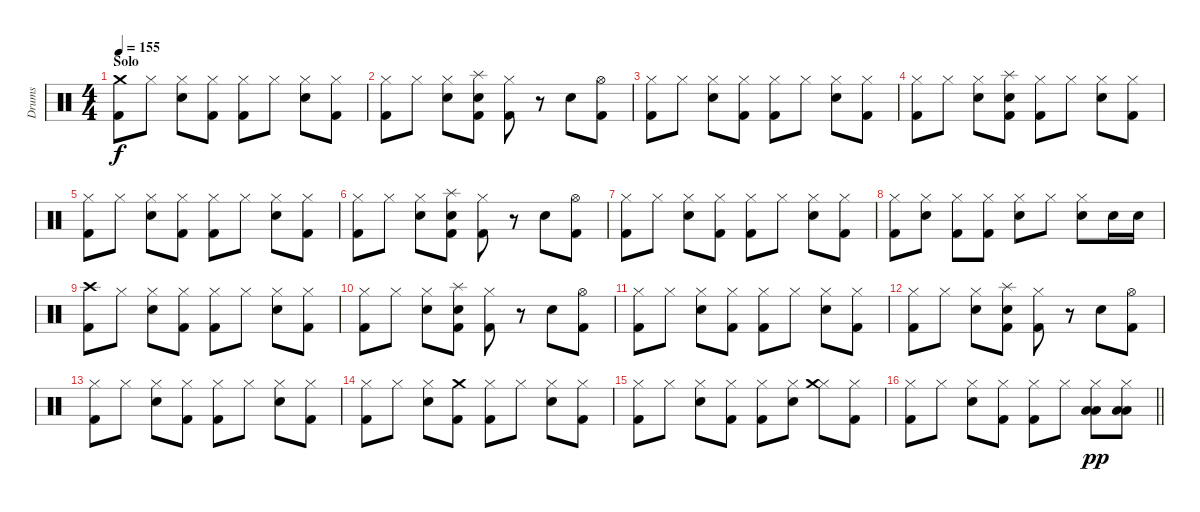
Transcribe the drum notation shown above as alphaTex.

\track ("Drums" "Drums") {instrument percussion}
\staff {score}
\articulation defaults
\ts (4 4)
\section ("" "Solo")
\tempo 155
\clef neutral
\ks c
("Crash medium (hit)" "Kick (hit) 2").8{dy f} "Hi-Hat (closed)".8 ("Hi-Hat (closed)" "Snare (hit) 2").8 ("Hi-Hat (closed)" "Kick (hit) 2").8 ("Hi-Hat (closed)" "Kick (hit) 2").8 "Hi-Hat (closed)".8 ("Hi-Hat (closed)" "Snare (hit) 2").8 ("Hi-Hat (closed)" "Kick (hit) 2").8 |
("Hi-Hat (closed)" "Kick (hit) 2").8 "Hi-Hat (closed)".8 ("Hi-Hat (closed)" "Snare (hit) 2").8 ("Splash (hit)" "Snare (hit) 2" "Kick (hit) 2").8 ("Hi-Hat (closed)" "Kick (hit) 2").8 r.8 "Snare (hit) 2".8 ("Hi-Hat (open)" "Kick (hit) 2").8 |
("Hi-Hat (closed)" "Kick (hit) 2").8 "Hi-Hat (closed)".8 ("Hi-Hat (closed)" "Snare (hit) 2").8 ("Hi-Hat (closed)" "Kick (hit) 2").8 ("Hi-Hat (closed)" "Kick (hit) 2").8 "Hi-Hat (closed)".8 ("Hi-Hat (closed)" "Snare (hit) 2").8 ("Hi-Hat (closed)" "Kick (hit) 2").8 |
("Hi-Hat (closed)" "Kick (hit) 2").8 "Hi-Hat (closed)".8 ("Hi-Hat (closed)" "Snare (hit) 2").8 ("Splash (hit)" "Snare (hit) 2" "Kick (hit) 2").8 ("Hi-Hat (closed)" "Kick (hit) 2").8 "Hi-Hat (closed)".8 ("Hi-Hat (closed)" "Snare (hit) 2").8 ("Hi-Hat (closed)" "Kick (hit) 2").8 |
("Hi-Hat (closed)" "Kick (hit) 2").8 "Hi-Hat (closed)".8 ("Hi-Hat (closed)" "Snare (hit) 2").8 ("Hi-Hat (closed)" "Kick (hit) 2").8 ("Hi-Hat (closed)" "Kick (hit) 2").8 "Hi-Hat (closed)".8 ("Hi-Hat (closed)" "Snare (hit) 2").8 ("Hi-Hat (closed)" "Kick (hit) 2").8 |
("Hi-Hat (closed)" "Kick (hit) 2").8 "Hi-Hat (closed)".8 ("Hi-Hat (closed)" "Snare (hit) 2").8 ("Splash (hit)" "Snare (hit) 2" "Kick (hit) 2").8 ("Hi-Hat (closed)" "Kick (hit) 2").8 r.8 "Snare (hit) 2".8 ("Hi-Hat (open)" "Kick (hit) 2").8 |
("Hi-Hat (closed)" "Kick (hit) 2").8 "Hi-Hat (closed)".8 ("Hi-Hat (closed)" "Snare (hit) 2").8 ("Hi-Hat (closed)" "Kick (hit) 2").8 ("Hi-Hat (closed)" "Kick (hit) 2").8 "Hi-Hat (closed)".8 ("Hi-Hat (closed)" "Snare (hit) 2").8 ("Hi-Hat (closed)" "Kick (hit) 2").8 |
("Hi-Hat (closed)" "Kick (hit) 2").8 ("Hi-Hat (closed)" "Snare (hit) 2").8 ("Hi-Hat (closed)" "Kick (hit) 2").8 ("Hi-Hat (closed)" "Kick (hit) 2").8 ("Hi-Hat (closed)" "Snare (hit) 2").8 "Hi-Hat (closed)".8 ("Hi-Hat (closed)" "Snare (hit) 2").8 "Snare (hit) 2".16 "Snare (hit) 2".16 |
("Crash high (hit)" "Kick (hit) 2").8 "Hi-Hat (closed)".8 ("Hi-Hat (closed)" "Snare (hit) 2").8 ("Hi-Hat (closed)" "Kick (hit) 2").8 ("Hi-Hat (closed)" "Kick (hit) 2").8 "Hi-Hat (closed)".8 ("Hi-Hat (closed)" "Snare (hit) 2").8 ("Hi-Hat (closed)" "Kick (hit) 2").8 |
("Hi-Hat (closed)" "Kick (hit) 2").8 "Hi-Hat (closed)".8 ("Hi-Hat (closed)" "Snare (hit) 2").8 ("Splash (hit)" "Snare (hit) 2" "Kick (hit) 2").8 ("Hi-Hat (closed)" "Kick (hit) 2").8 r.8 "Snare (hit) 2".8 ("Hi-Hat (open)" "Kick (hit) 2").8 |
("Hi-Hat (closed)" "Kick (hit) 2").8 "Hi-Hat (closed)".8 ("Hi-Hat (closed)" "Snare (hit) 2").8 ("Hi-Hat (closed)" "Kick (hit) 2").8 ("Hi-Hat (closed)" "Kick (hit) 2").8 "Hi-Hat (closed)".8 ("Hi-Hat (closed)" "Snare (hit) 2").8 ("Hi-Hat (closed)" "Kick (hit) 2").8 |
("Hi-Hat (closed)" "Kick (hit) 2").8 "Hi-Hat (closed)".8 ("Hi-Hat (closed)" "Snare (hit) 2").8 ("Splash (hit)" "Snare (hit) 2" "Kick (hit) 2").8 ("Hi-Hat (closed)" "Kick (hit) 2").8 r.8 "Snare (hit) 2".8 ("Hi-Hat (open)" "Kick (hit) 2").8 |
("Hi-Hat (closed)" "Kick (hit) 2").8 "Hi-Hat (closed)".8 ("Hi-Hat (closed)" "Snare (hit) 2").8 ("Hi-Hat (closed)" "Kick (hit) 2").8 ("Hi-Hat (closed)" "Kick (hit) 2").8 "Hi-Hat (closed)".8 ("Hi-Hat (closed)" "Snare (hit) 2").8 ("Hi-Hat (closed)" "Kick (hit) 2").8 |
("Hi-Hat (closed)" "Kick (hit) 2").8 "Hi-Hat (closed)".8 ("Hi-Hat (closed)" "Snare (hit) 2").8 ("Crash medium (hit)" "Kick (hit) 2").8 ("Hi-Hat (closed)" "Kick (hit) 2").8 "Hi-Hat (closed)".8 ("Hi-Hat (closed)" "Snare (hit) 2").8 ("Hi-Hat (closed)" "Kick (hit) 2").8 |
("Hi-Hat (closed)" "Kick (hit) 2").8 "Hi-Hat (closed)".8 ("Hi-Hat (closed)" "Snare (hit) 2").8 ("Hi-Hat (closed)" "Kick (hit) 2").8 ("Hi-Hat (closed)" "Kick (hit) 2").8 ("Hi-Hat (closed)" "Snare (hit) 2").8 ("Hi-Hat (closed)" "Crash medium (hit)").8 ("Hi-Hat (closed)" "Kick (hit) 2").8 |
\barLineRight lightlight
("Hi-Hat (closed)" "Kick (hit) 2").8 "Hi-Hat (closed)".8 ("Hi-Hat (closed)" "Snare (hit) 2").8 ("Hi-Hat (closed)" "Kick (hit) 2").8 ("Hi-Hat (closed)" "Kick (hit) 2").8 "Hi-Hat (closed)".8 ("Hi-Hat (closed)" "Low Tom (hit)" "Low Floor Tom (hit)").8{dy pp} ("Hi-Hat (closed)" "Low Tom (hit)" "Low Floor Tom (hit)").8
